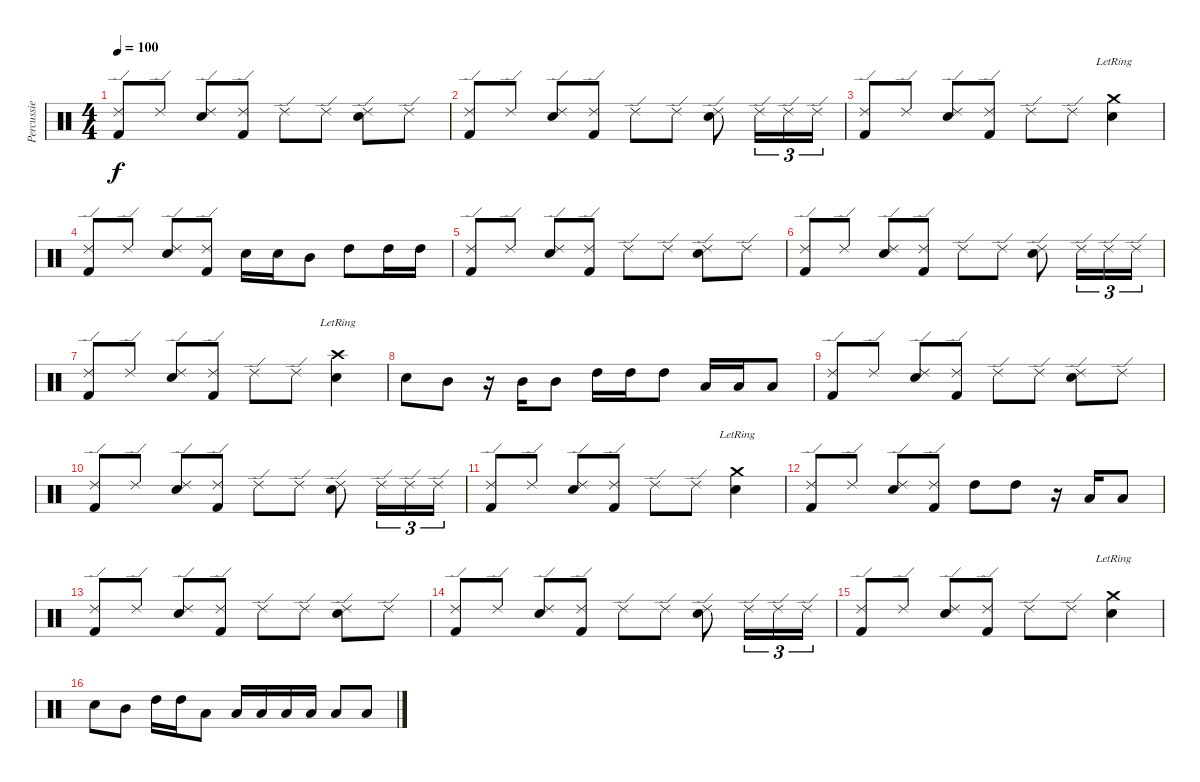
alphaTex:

\track ("Percussie" "Percussie") {instrument percussion}
\staff {score}
\articulation defaults
\ts (4 4)
\tempo 100
\clef neutral
\ks c
("Ride (edge) 2" "Kick (hit) 2").8{dy f} "Ride (edge) 2".8 ("Ride (edge) 2" "Snare (hit) 2").8 ("Ride (edge) 2" "Kick (hit) 2").8 "Ride (edge) 2".8 "Ride (edge) 2".8 ("Ride (edge) 2" "Snare (hit) 2").8 "Ride (edge) 2".8 |
("Ride (edge) 2" "Kick (hit) 2").8 "Ride (edge) 2".8 ("Ride (edge) 2" "Snare (hit) 2").8 ("Ride (edge) 2" "Kick (hit) 2").8 "Ride (edge) 2".8 "Ride (edge) 2".8 ("Ride (edge) 2" "Snare (hit) 2").8 "Ride (edge) 2".16{tu (3 2)} "Ride (edge) 2".16{tu (3 2)} "Ride (edge) 2".16{tu (3 2)} |
("Ride (edge) 2" "Kick (hit) 2").8 "Ride (edge) 2".8 ("Ride (edge) 2" "Snare (hit) 2").8 ("Ride (edge) 2" "Kick (hit) 2").8 "Ride (edge) 2".8 "Ride (edge) 2".8 ("Crash medium (hit)"{lr} "Snare (hit) 2").4 |
("Ride (edge) 2" "Kick (hit) 2").8 "Ride (edge) 2".8 ("Ride (edge) 2" "Snare (hit) 2").8 ("Ride (edge) 2" "Kick (hit) 2").8 "Snare (hit) 2".16 "Snare (hit) 2".16 "Mid Tom (hit)".8 "High Tom (hit)".8 "High Tom (hit)".16 "High Tom (hit)".16 |
("Ride (edge) 2" "Kick (hit) 2").8 "Ride (edge) 2".8 ("Ride (edge) 2" "Snare (hit) 2").8 ("Ride (edge) 2" "Kick (hit) 2").8 "Ride (edge) 2".8 "Ride (edge) 2".8 ("Ride (edge) 2" "Snare (hit) 2").8 "Ride (edge) 2".8 |
("Ride (edge) 2" "Kick (hit) 2").8 "Ride (edge) 2".8 ("Ride (edge) 2" "Snare (hit) 2").8 ("Ride (edge) 2" "Kick (hit) 2").8 "Ride (edge) 2".8 "Ride (edge) 2".8 ("Ride (edge) 2" "Snare (hit) 2").8 "Ride (edge) 2".16{tu (3 2)} "Ride (edge) 2".16{tu (3 2)} "Ride (edge) 2".16{tu (3 2)} |
("Ride (edge) 2" "Kick (hit) 2").8 "Ride (edge) 2".8 ("Ride (edge) 2" "Snare (hit) 2").8 ("Ride (edge) 2" "Kick (hit) 2").8 "Ride (edge) 2".8 "Ride (edge) 2".8 ("Crash high (hit)"{lr} "Snare (hit) 2").4 |
"Snare (hit) 2".8 "Mid Tom (hit)".8 r.16 "Mid Tom (hit)".16 "Mid Tom (hit)".8 "High Tom (hit)".16 "High Tom (hit)".16 "High Tom (hit)".8 "Low Tom (hit)".16 "Low Tom (hit)".16 "Low Tom (hit)".8 |
("Ride (edge) 2" "Kick (hit) 2").8 "Ride (edge) 2".8 ("Ride (edge) 2" "Snare (hit) 2").8 ("Ride (edge) 2" "Kick (hit) 2").8 "Ride (edge) 2".8 "Ride (edge) 2".8 ("Ride (edge) 2" "Snare (hit) 2").8 "Ride (edge) 2".8 |
("Ride (edge) 2" "Kick (hit) 2").8 "Ride (edge) 2".8 ("Ride (edge) 2" "Snare (hit) 2").8 ("Ride (edge) 2" "Kick (hit) 2").8 "Ride (edge) 2".8 "Ride (edge) 2".8 ("Ride (edge) 2" "Snare (hit) 2").8 "Ride (edge) 2".16{tu (3 2)} "Ride (edge) 2".16{tu (3 2)} "Ride (edge) 2".16{tu (3 2)} |
("Ride (edge) 2" "Kick (hit) 2").8 "Ride (edge) 2".8 ("Ride (edge) 2" "Snare (hit) 2").8 ("Ride (edge) 2" "Kick (hit) 2").8 "Ride (edge) 2".8 "Ride (edge) 2".8 ("Crash medium (hit)"{lr} "Snare (hit) 2").4 |
("Ride (edge) 2" "Kick (hit) 2").8 "Ride (edge) 2".8 ("Ride (edge) 2" "Snare (hit) 2").8 ("Ride (edge) 2" "Kick (hit) 2").8 "High Tom (hit)".8 "High Tom (hit)".8 r.16 "Low Tom (hit)".16 "Low Tom (hit)".8 |
("Ride (edge) 2" "Kick (hit) 2").8 "Ride (edge) 2".8 ("Ride (edge) 2" "Snare (hit) 2").8 ("Ride (edge) 2" "Kick (hit) 2").8 "Ride (edge) 2".8 "Ride (edge) 2".8 ("Ride (edge) 2" "Snare (hit) 2").8 "Ride (edge) 2".8 |
("Ride (edge) 2" "Kick (hit) 2").8 "Ride (edge) 2".8 ("Ride (edge) 2" "Snare (hit) 2").8 ("Ride (edge) 2" "Kick (hit) 2").8 "Ride (edge) 2".8 "Ride (edge) 2".8 ("Ride (edge) 2" "Snare (hit) 2").8 "Ride (edge) 2".16{tu (3 2)} "Ride (edge) 2".16{tu (3 2)} "Ride (edge) 2".16{tu (3 2)} |
("Ride (edge) 2" "Kick (hit) 2").8 "Ride (edge) 2".8 ("Ride (edge) 2" "Snare (hit) 2").8 ("Ride (edge) 2" "Kick (hit) 2").8 "Ride (edge) 2".8 "Ride (edge) 2".8 ("Crash medium (hit)"{lr} "Snare (hit) 2").4 |
"Snare (hit) 2".8 "Mid Tom (hit)".8 "High Tom (hit)".16 "High Tom (hit)".16 "Low Tom (hit)".8 "Low Tom (hit)".16 "Low Tom (hit)".16 "Low Tom (hit)".16 "Low Tom (hit)".16 "Low Tom (hit)".8 "Low Tom (hit)".8
